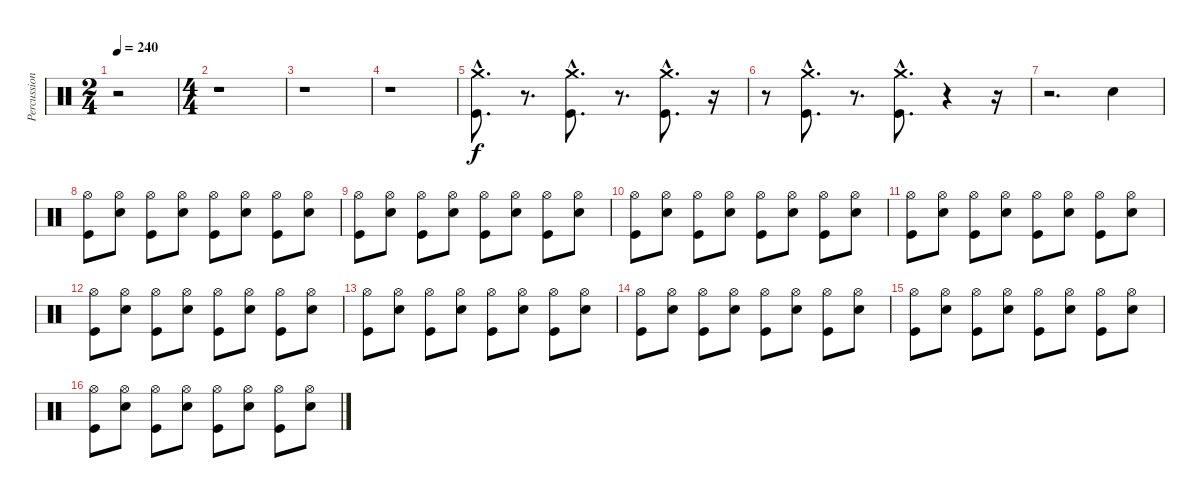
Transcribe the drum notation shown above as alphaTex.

\track ("Percussion" "Percussion") {instrument percussion}
\staff {score}
\articulation defaults
\ts (2 4)
\tempo 240
\clef neutral
\ks c
r.2{dy f} |
\ts (4 4)
r.1 |
r.1 |
r.1 |
("Crash medium (hit)"{hac} "Kick (hit)"{hac}).8{d} r.8{d} ("Crash medium (hit)"{hac} "Kick (hit)"{hac}).8{d} r.8{d} ("Crash medium (hit)"{hac} "Kick (hit)"{hac}).8{d} r.16 |
r.8 ("Crash medium (hit)"{hac} "Kick (hit)"{hac}).8{d} r.8{d} ("Crash medium (hit)"{hac} "Kick (hit)"{hac}).8{d} r.4 r.16 |
r.2{d} "Electric Snare (hit)".4 |
("Hi-Hat (open)" "Kick (hit)").8 ("Electric Snare (hit)" "Hi-Hat (open)").8 ("Hi-Hat (open)" "Kick (hit)").8 ("Electric Snare (hit)" "Hi-Hat (open)").8 ("Hi-Hat (open)" "Kick (hit)").8 ("Electric Snare (hit)" "Hi-Hat (open)").8 ("Hi-Hat (open)" "Kick (hit)").8 ("Electric Snare (hit)" "Hi-Hat (open)").8 |
("Hi-Hat (open)" "Kick (hit)").8 ("Electric Snare (hit)" "Hi-Hat (open)").8 ("Hi-Hat (open)" "Kick (hit)").8 ("Electric Snare (hit)" "Hi-Hat (open)").8 ("Hi-Hat (open)" "Kick (hit)").8 ("Electric Snare (hit)" "Hi-Hat (open)").8 ("Hi-Hat (open)" "Kick (hit)").8 ("Electric Snare (hit)" "Hi-Hat (open)").8 |
("Hi-Hat (open)" "Kick (hit)").8 ("Electric Snare (hit)" "Hi-Hat (open)").8 ("Hi-Hat (open)" "Kick (hit)").8 ("Electric Snare (hit)" "Hi-Hat (open)").8 ("Hi-Hat (open)" "Kick (hit)").8 ("Electric Snare (hit)" "Hi-Hat (open)").8 ("Hi-Hat (open)" "Kick (hit)").8 ("Electric Snare (hit)" "Hi-Hat (open)").8 |
("Hi-Hat (open)" "Kick (hit)").8 ("Electric Snare (hit)" "Hi-Hat (open)").8 ("Hi-Hat (open)" "Kick (hit)").8 ("Electric Snare (hit)" "Hi-Hat (open)").8 ("Hi-Hat (open)" "Kick (hit)").8 ("Electric Snare (hit)" "Hi-Hat (open)").8 ("Hi-Hat (open)" "Kick (hit)").8 ("Electric Snare (hit)" "Hi-Hat (open)").8 |
("Hi-Hat (open)" "Kick (hit)").8 ("Electric Snare (hit)" "Hi-Hat (open)").8 ("Hi-Hat (open)" "Kick (hit)").8 ("Electric Snare (hit)" "Hi-Hat (open)").8 ("Hi-Hat (open)" "Kick (hit)").8 ("Electric Snare (hit)" "Hi-Hat (open)").8 ("Hi-Hat (open)" "Kick (hit)").8 ("Electric Snare (hit)" "Hi-Hat (open)").8 |
("Hi-Hat (open)" "Kick (hit)").8 ("Electric Snare (hit)" "Hi-Hat (open)").8 ("Hi-Hat (open)" "Kick (hit)").8 ("Electric Snare (hit)" "Hi-Hat (open)").8 ("Hi-Hat (open)" "Kick (hit)").8 ("Electric Snare (hit)" "Hi-Hat (open)").8 ("Hi-Hat (open)" "Kick (hit)").8 ("Electric Snare (hit)" "Hi-Hat (open)").8 |
("Hi-Hat (open)" "Kick (hit)").8 ("Electric Snare (hit)" "Hi-Hat (open)").8 ("Hi-Hat (open)" "Kick (hit)").8 ("Electric Snare (hit)" "Hi-Hat (open)").8 ("Hi-Hat (open)" "Kick (hit)").8 ("Electric Snare (hit)" "Hi-Hat (open)").8 ("Hi-Hat (open)" "Kick (hit)").8 ("Electric Snare (hit)" "Hi-Hat (open)").8 |
("Hi-Hat (open)" "Kick (hit)").8 ("Electric Snare (hit)" "Hi-Hat (open)").8 ("Hi-Hat (open)" "Kick (hit)").8 ("Electric Snare (hit)" "Hi-Hat (open)").8 ("Hi-Hat (open)" "Kick (hit)").8 ("Electric Snare (hit)" "Hi-Hat (open)").8 ("Hi-Hat (open)" "Kick (hit)").8 ("Electric Snare (hit)" "Hi-Hat (open)").8 |
("Hi-Hat (open)" "Kick (hit)").8 ("Electric Snare (hit)" "Hi-Hat (open)").8 ("Hi-Hat (open)" "Kick (hit)").8 ("Electric Snare (hit)" "Hi-Hat (open)").8 ("Hi-Hat (open)" "Kick (hit)").8 ("Electric Snare (hit)" "Hi-Hat (open)").8 ("Hi-Hat (open)" "Kick (hit)").8 ("Electric Snare (hit)" "Hi-Hat (open)").8
